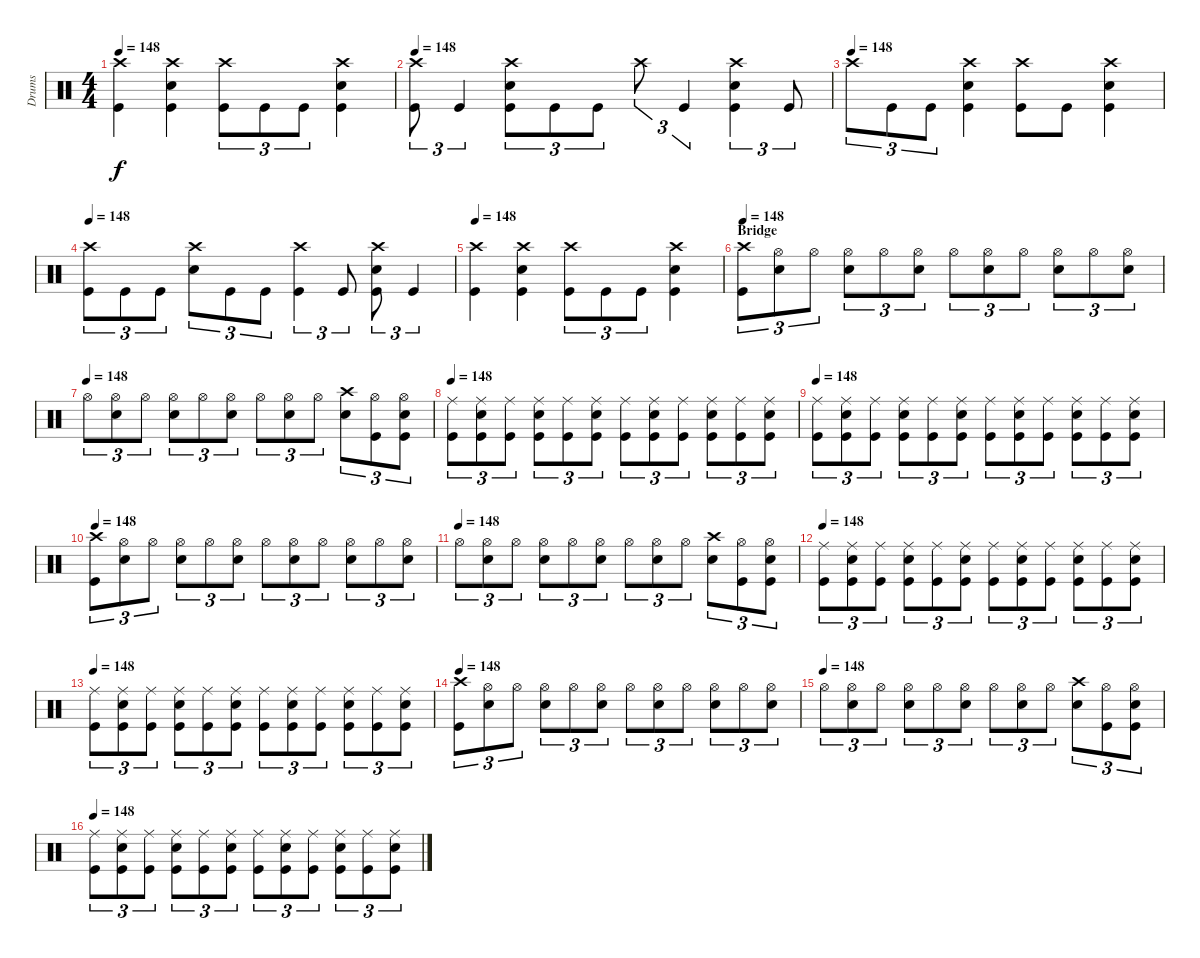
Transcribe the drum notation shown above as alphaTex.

\track ("Drums" "Drums") {instrument percussion}
\staff {score}
\articulation defaults
\ts (4 4)
\tempo 148
\clef neutral
\ks c
("Crash high (hit)" "Kick (hit)").4{dy f} ("Crash high (hit)" "Electric Snare (hit)" "Kick (hit)").4 ("Crash high (hit)" "Kick (hit)").8{tu (3 2)} "Kick (hit)".8{tu (3 2)} "Kick (hit)".8{tu (3 2)} ("Crash high (hit)" "Electric Snare (hit)" "Kick (hit)").4 |
\tempo 148
("Crash high (hit)" "Kick (hit)").8{tu (3 2)} "Kick (hit)".4{tu (3 2)} ("Crash high (hit)" "Electric Snare (hit)" "Kick (hit)").8{tu (3 2)} "Kick (hit)".8{tu (3 2)} "Kick (hit)".8{tu (3 2)} "Crash high (hit)".8{tu (3 2)} "Kick (hit)".4{tu (3 2)} ("Crash high (hit)" "Electric Snare (hit)" "Kick (hit)").4{tu (3 2)} "Kick (hit)".8{tu (3 2)} |
\tempo (148)
"Crash high (hit)".8{tu (3 2)} "Kick (hit)".8{tu (3 2)} "Kick (hit)".8{tu (3 2)} ("Crash high (hit)" "Electric Snare (hit)" "Kick (hit)").4 ("Crash high (hit)" "Kick (hit)").8 "Kick (hit)".8 ("Crash high (hit)" "Electric Snare (hit)" "Kick (hit)").4 |
\tempo 148
("Crash high (hit)" "Kick (hit)").8{tu (3 2)} "Kick (hit)".8{tu (3 2)} "Kick (hit)".8{tu (3 2)} ("Crash high (hit)" "Electric Snare (hit)").8{tu (3 2)} "Kick (hit)".8{tu (3 2)} "Kick (hit)".8{tu (3 2)} ("Crash high (hit)" "Kick (hit)").4{tu (3 2)} "Kick (hit)".8{tu (3 2)} ("Crash high (hit)" "Electric Snare (hit)" "Kick (hit)").8{tu (3 2)} "Kick (hit)".4{tu (3 2)} |
\tempo 148
("Crash high (hit)" "Kick (hit)").4 ("Crash high (hit)" "Electric Snare (hit)" "Kick (hit)").4 ("Crash high (hit)" "Kick (hit)").8{tu (3 2)} "Kick (hit)".8{tu (3 2)} "Kick (hit)".8{tu (3 2)} ("Crash high (hit)" "Electric Snare (hit)" "Kick (hit)").4 |
\section ("" "Bridge")
\tempo 148
("Crash high (hit)" "Kick (hit)").8{tu (3 2)} ("Hi-Hat (open)" "Electric Snare (hit)").8{tu (3 2)} "Hi-Hat (open)".8{tu (3 2)} ("Hi-Hat (open)" "Electric Snare (hit)").8{tu (3 2)} "Hi-Hat (open)".8{tu (3 2)} ("Hi-Hat (open)" "Electric Snare (hit)").8{tu (3 2)} "Hi-Hat (open)".8{tu (3 2)} ("Hi-Hat (open)" "Electric Snare (hit)").8{tu (3 2)} "Hi-Hat (open)".8{tu (3 2)} ("Hi-Hat (open)" "Electric Snare (hit)").8{tu (3 2)} "Hi-Hat (open)".8{tu (3 2)} ("Hi-Hat (open)" "Electric Snare (hit)").8{tu (3 2)} |
\tempo (148)
"Hi-Hat (open)".8{tu (3 2)} ("Hi-Hat (open)" "Electric Snare (hit)").8{tu (3 2)} "Hi-Hat (open)".8{tu (3 2)} ("Hi-Hat (open)" "Electric Snare (hit)").8{tu (3 2)} "Hi-Hat (open)".8{tu (3 2)} ("Hi-Hat (open)" "Electric Snare (hit)").8{tu (3 2)} "Hi-Hat (open)".8{tu (3 2)} ("Hi-Hat (open)" "Electric Snare (hit)").8{tu (3 2)} "Hi-Hat (open)".8{tu (3 2)} ("Crash high (hit)" "Electric Snare (hit)").8{tu (3 2)} ("Hi-Hat (open)" "Kick (hit)").8{tu (3 2)} ("Hi-Hat (open)" "Electric Snare (hit)" "Kick (hit)").8{tu (3 2)} |
\tempo 148
("Ride (middle)" "Kick (hit)").8{tu (3 2)} ("Ride (middle)" "Electric Snare (hit)" "Kick (hit)").8{tu (3 2)} ("Ride (middle)" "Kick (hit)").8{tu (3 2)} ("Ride (middle)" "Electric Snare (hit)" "Kick (hit)").8{tu (3 2)} ("Ride (middle)" "Kick (hit)").8{tu (3 2)} ("Ride (middle)" "Electric Snare (hit)" "Kick (hit)").8{tu (3 2)} ("Ride (middle)" "Kick (hit)").8{tu (3 2)} ("Ride (middle)" "Electric Snare (hit)" "Kick (hit)").8{tu (3 2)} ("Ride (middle)" "Kick (hit)").8{tu (3 2)} ("Ride (middle)" "Electric Snare (hit)" "Kick (hit)").8{tu (3 2)} ("Ride (middle)" "Kick (hit)").8{tu (3 2)} ("Ride (middle)" "Electric Snare (hit)" "Kick (hit)").8{tu (3 2)} |
\tempo 148
("Ride (middle)" "Kick (hit)").8{tu (3 2)} ("Ride (middle)" "Electric Snare (hit)" "Kick (hit)").8{tu (3 2)} ("Ride (middle)" "Kick (hit)").8{tu (3 2)} ("Ride (middle)" "Electric Snare (hit)" "Kick (hit)").8{tu (3 2)} ("Ride (middle)" "Kick (hit)").8{tu (3 2)} ("Ride (middle)" "Electric Snare (hit)" "Kick (hit)").8{tu (3 2)} ("Ride (middle)" "Kick (hit)").8{tu (3 2)} ("Ride (middle)" "Electric Snare (hit)" "Kick (hit)").8{tu (3 2)} ("Ride (middle)" "Kick (hit)").8{tu (3 2)} ("Ride (middle)" "Electric Snare (hit)" "Kick (hit)").8{tu (3 2)} ("Ride (middle)" "Kick (hit)").8{tu (3 2)} ("Ride (middle)" "Electric Snare (hit)" "Kick (hit)").8{tu (3 2)} |
\tempo 148
("Crash high (hit)" "Kick (hit)").8{tu (3 2)} ("Hi-Hat (open)" "Electric Snare (hit)").8{tu (3 2)} "Hi-Hat (open)".8{tu (3 2)} ("Hi-Hat (open)" "Electric Snare (hit)").8{tu (3 2)} "Hi-Hat (open)".8{tu (3 2)} ("Hi-Hat (open)" "Electric Snare (hit)").8{tu (3 2)} "Hi-Hat (open)".8{tu (3 2)} ("Hi-Hat (open)" "Electric Snare (hit)").8{tu (3 2)} "Hi-Hat (open)".8{tu (3 2)} ("Hi-Hat (open)" "Electric Snare (hit)").8{tu (3 2)} "Hi-Hat (open)".8{tu (3 2)} ("Hi-Hat (open)" "Electric Snare (hit)").8{tu (3 2)} |
\tempo (148)
"Hi-Hat (open)".8{tu (3 2)} ("Hi-Hat (open)" "Electric Snare (hit)").8{tu (3 2)} "Hi-Hat (open)".8{tu (3 2)} ("Hi-Hat (open)" "Electric Snare (hit)").8{tu (3 2)} "Hi-Hat (open)".8{tu (3 2)} ("Hi-Hat (open)" "Electric Snare (hit)").8{tu (3 2)} "Hi-Hat (open)".8{tu (3 2)} ("Hi-Hat (open)" "Electric Snare (hit)").8{tu (3 2)} "Hi-Hat (open)".8{tu (3 2)} ("Crash high (hit)" "Electric Snare (hit)").8{tu (3 2)} ("Hi-Hat (open)" "Kick (hit)").8{tu (3 2)} ("Hi-Hat (open)" "Electric Snare (hit)" "Kick (hit)").8{tu (3 2)} |
\tempo 148
("Ride (middle)" "Kick (hit)").8{tu (3 2)} ("Ride (middle)" "Electric Snare (hit)" "Kick (hit)").8{tu (3 2)} ("Ride (middle)" "Kick (hit)").8{tu (3 2)} ("Ride (middle)" "Electric Snare (hit)" "Kick (hit)").8{tu (3 2)} ("Ride (middle)" "Kick (hit)").8{tu (3 2)} ("Ride (middle)" "Electric Snare (hit)" "Kick (hit)").8{tu (3 2)} ("Ride (middle)" "Kick (hit)").8{tu (3 2)} ("Ride (middle)" "Electric Snare (hit)" "Kick (hit)").8{tu (3 2)} ("Ride (middle)" "Kick (hit)").8{tu (3 2)} ("Ride (middle)" "Electric Snare (hit)" "Kick (hit)").8{tu (3 2)} ("Ride (middle)" "Kick (hit)").8{tu (3 2)} ("Ride (middle)" "Electric Snare (hit)" "Kick (hit)").8{tu (3 2)} |
\tempo 148
("Ride (middle)" "Kick (hit)").8{tu (3 2)} ("Ride (middle)" "Electric Snare (hit)" "Kick (hit)").8{tu (3 2)} ("Ride (middle)" "Kick (hit)").8{tu (3 2)} ("Ride (middle)" "Electric Snare (hit)" "Kick (hit)").8{tu (3 2)} ("Ride (middle)" "Kick (hit)").8{tu (3 2)} ("Ride (middle)" "Electric Snare (hit)" "Kick (hit)").8{tu (3 2)} ("Ride (middle)" "Kick (hit)").8{tu (3 2)} ("Ride (middle)" "Electric Snare (hit)" "Kick (hit)").8{tu (3 2)} ("Ride (middle)" "Kick (hit)").8{tu (3 2)} ("Ride (middle)" "Electric Snare (hit)" "Kick (hit)").8{tu (3 2)} ("Ride (middle)" "Kick (hit)").8{tu (3 2)} ("Ride (middle)" "Electric Snare (hit)" "Kick (hit)").8{tu (3 2)} |
\tempo 148
("Crash high (hit)" "Kick (hit)").8{tu (3 2)} ("Hi-Hat (open)" "Electric Snare (hit)").8{tu (3 2)} "Hi-Hat (open)".8{tu (3 2)} ("Hi-Hat (open)" "Electric Snare (hit)").8{tu (3 2)} "Hi-Hat (open)".8{tu (3 2)} ("Hi-Hat (open)" "Electric Snare (hit)").8{tu (3 2)} "Hi-Hat (open)".8{tu (3 2)} ("Hi-Hat (open)" "Electric Snare (hit)").8{tu (3 2)} "Hi-Hat (open)".8{tu (3 2)} ("Hi-Hat (open)" "Electric Snare (hit)").8{tu (3 2)} "Hi-Hat (open)".8{tu (3 2)} ("Hi-Hat (open)" "Electric Snare (hit)").8{tu (3 2)} |
\tempo (148)
"Hi-Hat (open)".8{tu (3 2)} ("Hi-Hat (open)" "Electric Snare (hit)").8{tu (3 2)} "Hi-Hat (open)".8{tu (3 2)} ("Hi-Hat (open)" "Electric Snare (hit)").8{tu (3 2)} "Hi-Hat (open)".8{tu (3 2)} ("Hi-Hat (open)" "Electric Snare (hit)").8{tu (3 2)} "Hi-Hat (open)".8{tu (3 2)} ("Hi-Hat (open)" "Electric Snare (hit)").8{tu (3 2)} "Hi-Hat (open)".8{tu (3 2)} ("Crash high (hit)" "Electric Snare (hit)").8{tu (3 2)} ("Hi-Hat (open)" "Kick (hit)").8{tu (3 2)} ("Hi-Hat (open)" "Electric Snare (hit)" "Kick (hit)").8{tu (3 2)} |
\tempo 148
("Ride (middle)" "Kick (hit)").8{tu (3 2)} ("Ride (middle)" "Electric Snare (hit)" "Kick (hit)").8{tu (3 2)} ("Ride (middle)" "Kick (hit)").8{tu (3 2)} ("Ride (middle)" "Electric Snare (hit)" "Kick (hit)").8{tu (3 2)} ("Ride (middle)" "Kick (hit)").8{tu (3 2)} ("Ride (middle)" "Electric Snare (hit)" "Kick (hit)").8{tu (3 2)} ("Ride (middle)" "Kick (hit)").8{tu (3 2)} ("Ride (middle)" "Electric Snare (hit)" "Kick (hit)").8{tu (3 2)} ("Ride (middle)" "Kick (hit)").8{tu (3 2)} ("Ride (middle)" "Electric Snare (hit)" "Kick (hit)").8{tu (3 2)} ("Ride (middle)" "Kick (hit)").8{tu (3 2)} ("Ride (middle)" "Electric Snare (hit)" "Kick (hit)").8{tu (3 2)}
